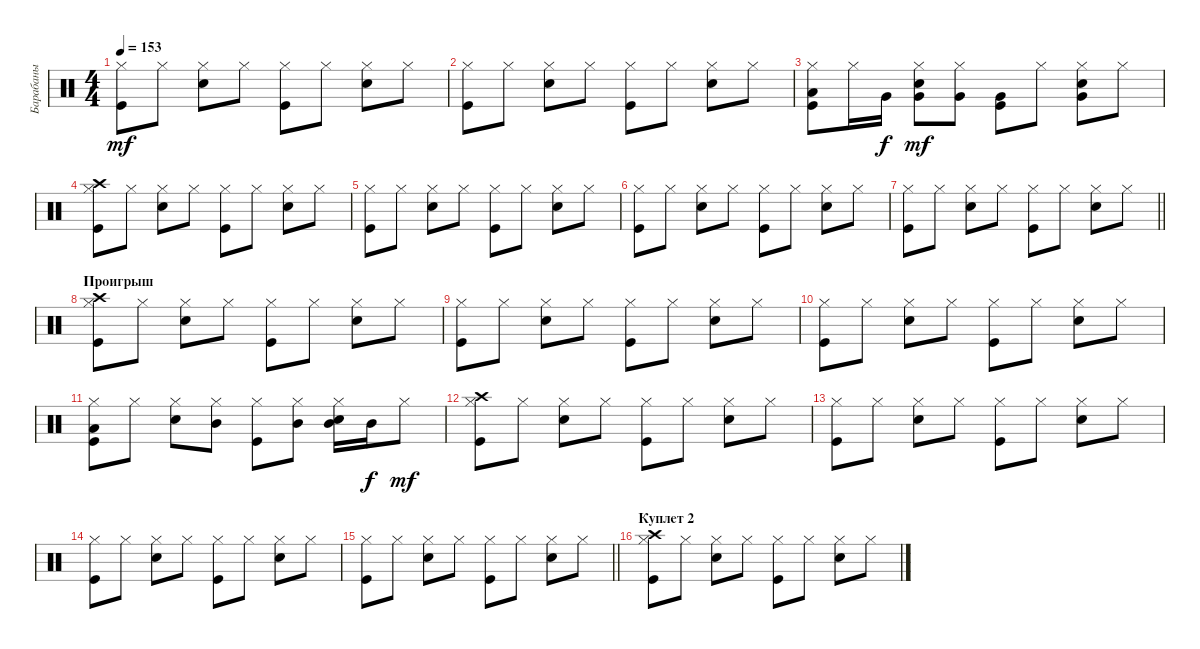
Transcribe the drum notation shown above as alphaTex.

\track ("Барабаны" "Барабаны") {instrument percussion}
\staff {score}
\articulation defaults
\ts (4 4)
\tempo 153
\clef neutral
\ks c
("Kick (hit)" "Hi-Hat (closed)").8{dy mf} "Hi-Hat (closed)".8 ("Snare (hit) 2" "Hi-Hat (closed)").8 "Hi-Hat (closed)".8 ("Kick (hit)" "Hi-Hat (closed)").8 "Hi-Hat (closed)".8 ("Snare (hit) 2" "Hi-Hat (closed)").8 "Hi-Hat (closed)".8 |
("Kick (hit)" "Hi-Hat (closed)").8 "Hi-Hat (closed)".8 ("Snare (hit) 2" "Hi-Hat (closed)").8 "Hi-Hat (closed)".8 ("Kick (hit)" "Hi-Hat (closed)").8 "Hi-Hat (closed)".8 ("Snare (hit) 2" "Hi-Hat (closed)").8 "Hi-Hat (closed)".8 |
("Kick (hit)" "Hi-Hat (closed)" "Low Tom (hit)").8 "Hi-Hat (closed)".16 "Very Low Tom (hit)".16{dy f} ("Snare (hit) 2" "Hi-Hat (closed)" "Very Low Tom (hit)").8{dy mf} ("Hi-Hat (closed)" "Very Low Tom (hit)").8 ("Kick (hit)" "Very Low Tom (hit)").8 "Hi-Hat (closed)".8 ("Snare (hit) 2" "Hi-Hat (closed)" "Very Low Tom (hit)").8 "Hi-Hat (closed)".8 |
("Kick (hit)" "Hi-Hat (closed)" "Crash high (hit)").8 "Hi-Hat (closed)".8 ("Snare (hit) 2" "Hi-Hat (closed)").8 "Hi-Hat (closed)".8 ("Kick (hit)" "Hi-Hat (closed)").8 "Hi-Hat (closed)".8 ("Snare (hit) 2" "Hi-Hat (closed)").8 "Hi-Hat (closed)".8 |
("Kick (hit)" "Hi-Hat (closed)").8 "Hi-Hat (closed)".8 ("Snare (hit) 2" "Hi-Hat (closed)").8 "Hi-Hat (closed)".8 ("Kick (hit)" "Hi-Hat (closed)").8 "Hi-Hat (closed)".8 ("Snare (hit) 2" "Hi-Hat (closed)").8 "Hi-Hat (closed)".8 |
("Kick (hit)" "Hi-Hat (closed)").8 "Hi-Hat (closed)".8 ("Snare (hit) 2" "Hi-Hat (closed)").8 "Hi-Hat (closed)".8 ("Kick (hit)" "Hi-Hat (closed)").8 "Hi-Hat (closed)".8 ("Snare (hit) 2" "Hi-Hat (closed)").8 "Hi-Hat (closed)".8 |
\barLineRight lightlight
("Kick (hit)" "Hi-Hat (closed)").8 "Hi-Hat (closed)".8 ("Snare (hit) 2" "Hi-Hat (closed)").8 "Hi-Hat (closed)".8 ("Kick (hit)" "Hi-Hat (closed)").8 "Hi-Hat (closed)".8 ("Snare (hit) 2" "Hi-Hat (closed)").8 "Hi-Hat (closed)".8 |
\section ("" "Проигрыш")
("Kick (hit)" "Hi-Hat (closed)" "Crash high (hit)").8 "Hi-Hat (closed)".8 ("Snare (hit) 2" "Hi-Hat (closed)").8 "Hi-Hat (closed)".8 ("Kick (hit)" "Hi-Hat (closed)").8 "Hi-Hat (closed)".8 ("Snare (hit) 2" "Hi-Hat (closed)").8 "Hi-Hat (closed)".8 |
("Kick (hit)" "Hi-Hat (closed)").8 "Hi-Hat (closed)".8 ("Snare (hit) 2" "Hi-Hat (closed)").8 "Hi-Hat (closed)".8 ("Kick (hit)" "Hi-Hat (closed)").8 "Hi-Hat (closed)".8 ("Snare (hit) 2" "Hi-Hat (closed)").8 "Hi-Hat (closed)".8 |
("Kick (hit)" "Hi-Hat (closed)").8 "Hi-Hat (closed)".8 ("Snare (hit) 2" "Hi-Hat (closed)").8 "Hi-Hat (closed)".8 ("Kick (hit)" "Hi-Hat (closed)").8 "Hi-Hat (closed)".8 ("Snare (hit) 2" "Hi-Hat (closed)").8 "Hi-Hat (closed)".8 |
("Kick (hit)" "Hi-Hat (closed)" "Low Tom (hit)").8 "Hi-Hat (closed)".8 ("Snare (hit) 2" "Hi-Hat (closed)").8 ("Hi-Hat (closed)" "Mid Tom (hit)").8 ("Kick (hit)" "Hi-Hat (closed)").8 ("Hi-Hat (closed)" "Mid Tom (hit)").8 ("Snare (hit) 2" "Hi-Hat (closed)" "Mid Tom (hit)").16 "Mid Tom (hit)".16{dy f} "Hi-Hat (closed)".8{dy mf} |
("Kick (hit)" "Hi-Hat (closed)" "Crash high (hit)").8 "Hi-Hat (closed)".8 ("Snare (hit) 2" "Hi-Hat (closed)").8 "Hi-Hat (closed)".8 ("Kick (hit)" "Hi-Hat (closed)").8 "Hi-Hat (closed)".8 ("Snare (hit) 2" "Hi-Hat (closed)").8 "Hi-Hat (closed)".8 |
("Kick (hit)" "Hi-Hat (closed)").8 "Hi-Hat (closed)".8 ("Snare (hit) 2" "Hi-Hat (closed)").8 "Hi-Hat (closed)".8 ("Kick (hit)" "Hi-Hat (closed)").8 "Hi-Hat (closed)".8 ("Snare (hit) 2" "Hi-Hat (closed)").8 "Hi-Hat (closed)".8 |
("Kick (hit)" "Hi-Hat (closed)").8 "Hi-Hat (closed)".8 ("Snare (hit) 2" "Hi-Hat (closed)").8 "Hi-Hat (closed)".8 ("Kick (hit)" "Hi-Hat (closed)").8 "Hi-Hat (closed)".8 ("Snare (hit) 2" "Hi-Hat (closed)").8 "Hi-Hat (closed)".8 |
\barLineRight lightlight
("Kick (hit)" "Hi-Hat (closed)").8 "Hi-Hat (closed)".8 ("Snare (hit) 2" "Hi-Hat (closed)").8 "Hi-Hat (closed)".8 ("Kick (hit)" "Hi-Hat (closed)").8 "Hi-Hat (closed)".8 ("Snare (hit) 2" "Hi-Hat (closed)").8 "Hi-Hat (closed)".8 |
\section ("" "Куплет 2")
("Kick (hit)" "Hi-Hat (closed)" "Crash high (hit)").8 "Hi-Hat (closed)".8 ("Snare (hit) 2" "Hi-Hat (closed)").8 "Hi-Hat (closed)".8 ("Kick (hit)" "Hi-Hat (closed)").8 "Hi-Hat (closed)".8 ("Snare (hit) 2" "Hi-Hat (closed)").8 "Hi-Hat (closed)".8
